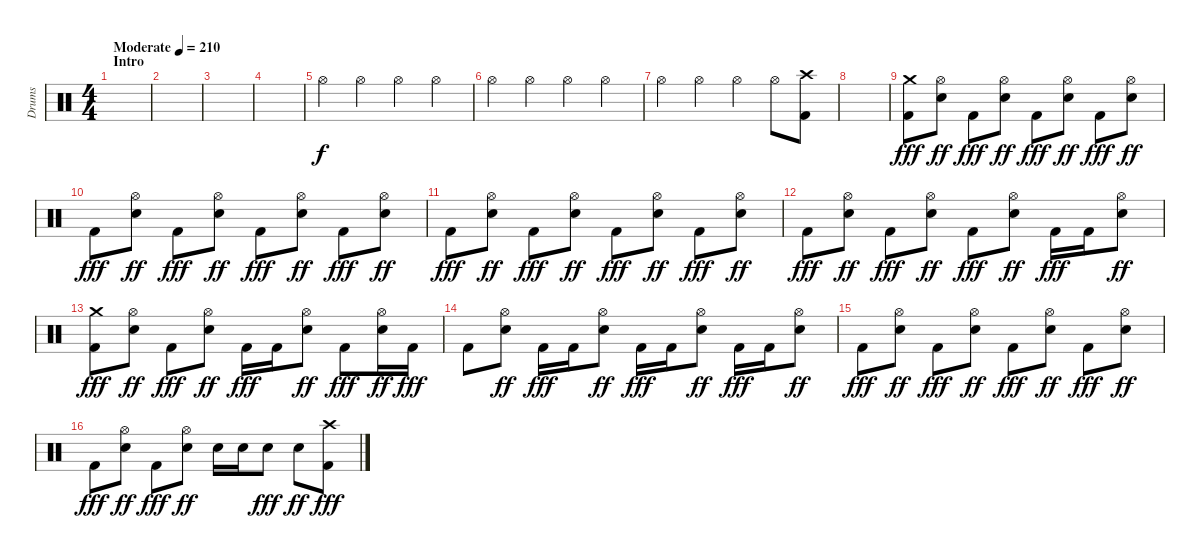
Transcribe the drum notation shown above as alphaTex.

\track ("Drums" "Drums") {instrument percussion}
\staff {score}
\articulation defaults
\ts (4 4)
\section ("" "Intro")
\tempo (210 "Moderate")
\clef neutral
\ks c
|
|
|
|
"Hi-Hat (open)".4 "Hi-Hat (open)".4 "Hi-Hat (open)".4 "Hi-Hat (open)".4 |
"Hi-Hat (open)".4 "Hi-Hat (open)".4 "Hi-Hat (open)".4 "Hi-Hat (open)".4 |
"Hi-Hat (open)".4 "Hi-Hat (open)".4 "Hi-Hat (open)".4 "Hi-Hat (open)".8 ("Crash high (hit)" "Kick (hit) 2").8 |
|
("Crash medium (hit)" "Kick (hit) 2").8{dy fff} ("Hi-Hat (open)" "Snare (hit) 2").8{dy ff} "Kick (hit) 2".8{dy fff} ("Hi-Hat (open)" "Snare (hit) 2").8{dy ff} "Kick (hit) 2".8{dy fff} ("Hi-Hat (open)" "Snare (hit) 2").8{dy ff} "Kick (hit) 2".8{dy fff} ("Hi-Hat (open)" "Snare (hit) 2").8{dy ff} |
"Kick (hit) 2".8{dy fff} ("Hi-Hat (open)" "Snare (hit) 2").8{dy ff} "Kick (hit) 2".8{dy fff} ("Hi-Hat (open)" "Snare (hit) 2").8{dy ff} "Kick (hit) 2".8{dy fff} ("Hi-Hat (open)" "Snare (hit) 2").8{dy ff} "Kick (hit) 2".8{dy fff} ("Hi-Hat (open)" "Snare (hit) 2").8{dy ff} |
"Kick (hit) 2".8{dy fff} ("Hi-Hat (open)" "Snare (hit) 2").8{dy ff} "Kick (hit) 2".8{dy fff} ("Hi-Hat (open)" "Snare (hit) 2").8{dy ff} "Kick (hit) 2".8{dy fff} ("Hi-Hat (open)" "Snare (hit) 2").8{dy ff} "Kick (hit) 2".8{dy fff} ("Hi-Hat (open)" "Snare (hit) 2").8{dy ff} |
"Kick (hit) 2".8{dy fff} ("Hi-Hat (open)" "Snare (hit) 2").8{dy ff} "Kick (hit) 2".8{dy fff} ("Hi-Hat (open)" "Snare (hit) 2").8{dy ff} "Kick (hit) 2".8{dy fff} ("Hi-Hat (open)" "Snare (hit) 2").8{dy ff} "Kick (hit) 2".16{dy fff} "Kick (hit) 2".16 ("Hi-Hat (open)" "Snare (hit) 2").8{dy ff} |
("Crash medium (hit)" "Kick (hit) 2").8{dy fff} ("Hi-Hat (open)" "Snare (hit) 2").8{dy ff} "Kick (hit) 2".8{dy fff} ("Hi-Hat (open)" "Snare (hit) 2").8{dy ff} "Kick (hit) 2".16{dy fff} "Kick (hit) 2".16 ("Hi-Hat (open)" "Snare (hit) 2").8{dy ff} "Kick (hit) 2".8{dy fff} ("Hi-Hat (open)" "Snare (hit) 2").16{dy ff} "Kick (hit) 2".16{dy fff} |
"Kick (hit) 2".8 ("Hi-Hat (open)" "Snare (hit) 2").8{dy ff} "Kick (hit) 2".16{dy fff} "Kick (hit) 2".16 ("Hi-Hat (open)" "Snare (hit) 2").8{dy ff} "Kick (hit) 2".16{dy fff} "Kick (hit) 2".16 ("Hi-Hat (open)" "Snare (hit) 2").8{dy ff} "Kick (hit) 2".16{dy fff} "Kick (hit) 2".16 ("Hi-Hat (open)" "Snare (hit) 2").8{dy ff} |
"Kick (hit) 2".8{dy fff} ("Hi-Hat (open)" "Snare (hit) 2").8{dy ff} "Kick (hit) 2".8{dy fff} ("Hi-Hat (open)" "Snare (hit) 2").8{dy ff} "Kick (hit) 2".8{dy fff} ("Hi-Hat (open)" "Snare (hit) 2").8{dy ff} "Kick (hit) 2".8{dy fff} ("Hi-Hat (open)" "Snare (hit) 2").8{dy ff} |
"Kick (hit) 2".8{dy fff} ("Hi-Hat (open)" "Snare (hit) 2").8{dy ff} "Kick (hit) 2".8{dy fff} ("Hi-Hat (open)" "Snare (hit) 2").8{dy ff} "Snare (hit) 2".16 "Snare (hit) 2".16 "Snare (hit) 2".8{dy fff} "Snare (hit) 2".8{dy ff} ("Crash high (hit)" "Kick (hit) 2").8{dy fff}
